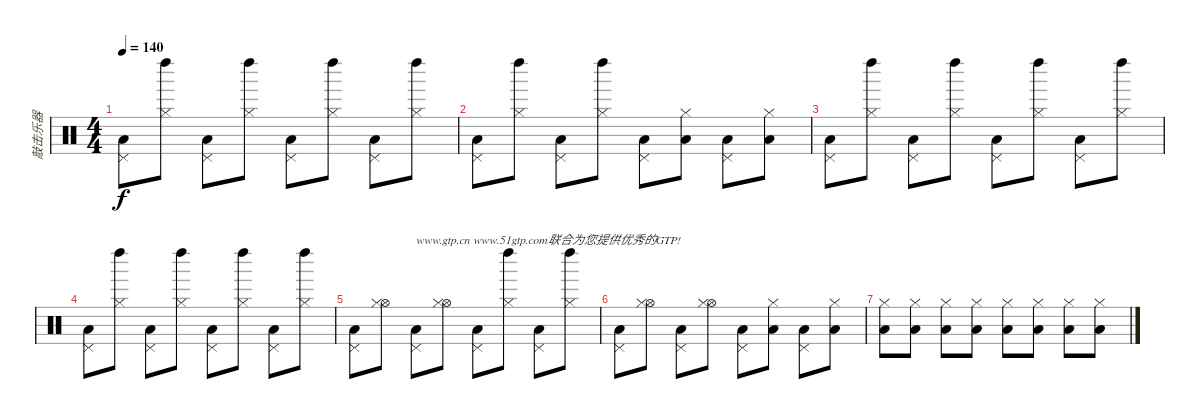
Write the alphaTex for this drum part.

\track ("敲击乐器" "敲击乐器") {instrument percussion}
\staff {score}
\articulation defaults
\ts (4 4)
\tempo 140
\clef neutral
\ks c
("Low Floor Tom (hit)" "Pedal Hi-Hat (hit)").8{dy f} ("Left Maraca (hit)" "Hi-Hat (closed)").8 ("Low Floor Tom (hit)" "Pedal Hi-Hat (hit)").8 ("Left Maraca (hit)" "Hi-Hat (closed)").8 ("Low Floor Tom (hit)" "Pedal Hi-Hat (hit)").8 ("Left Maraca (hit)" "Hi-Hat (closed)").8 ("Low Floor Tom (hit)" "Pedal Hi-Hat (hit)").8 ("Left Maraca (hit)" "Hi-Hat (closed)").8 |
("Low Floor Tom (hit)" "Pedal Hi-Hat (hit)").8 ("Left Maraca (hit)" "Hi-Hat (closed)").8 ("Low Floor Tom (hit)" "Pedal Hi-Hat (hit)").8 ("Left Maraca (hit)" "Hi-Hat (closed)").8 ("Low Floor Tom (hit)" "Pedal Hi-Hat (hit)").8 ("Low Floor Tom (hit)" "Hi-Hat (closed)").8 ("Low Floor Tom (hit)" "Pedal Hi-Hat (hit)").8 ("Low Floor Tom (hit)" "Hi-Hat (closed)").8 |
("Low Floor Tom (hit)" "Pedal Hi-Hat (hit)").8 ("Left Maraca (hit)" "Hi-Hat (closed)").8 ("Low Floor Tom (hit)" "Pedal Hi-Hat (hit)").8 ("Left Maraca (hit)" "Hi-Hat (closed)").8 ("Low Floor Tom (hit)" "Pedal Hi-Hat (hit)").8 ("Left Maraca (hit)" "Hi-Hat (closed)").8 ("Low Floor Tom (hit)" "Pedal Hi-Hat (hit)").8 ("Left Maraca (hit)" "Hi-Hat (closed)").8 |
("Low Floor Tom (hit)" "Pedal Hi-Hat (hit)").8 ("Left Maraca (hit)" "Hi-Hat (closed)").8 ("Low Floor Tom (hit)" "Pedal Hi-Hat (hit)").8 ("Left Maraca (hit)" "Hi-Hat (closed)").8 ("Low Floor Tom (hit)" "Pedal Hi-Hat (hit)").8 ("Left Maraca (hit)" "Hi-Hat (closed)").8 ("Low Floor Tom (hit)" "Pedal Hi-Hat (hit)").8 ("Left Maraca (hit)" "Hi-Hat (closed)").8 |
("Low Floor Tom (hit)" "Pedal Hi-Hat (hit)").8 ("Hi-Hat (open)" "Hi-Hat (closed)").8 ("Low Floor Tom (hit)" "Pedal Hi-Hat (hit)").8{txt "www.gtp.cn www.51gtp.com联合为您提供优秀的GTP!"} ("Hi-Hat (open)" "Hi-Hat (closed)").8 ("Low Floor Tom (hit)" "Pedal Hi-Hat (hit)").8 ("Left Maraca (hit)" "Hi-Hat (closed)").8 ("Low Floor Tom (hit)" "Pedal Hi-Hat (hit)").8 ("Left Maraca (hit)" "Hi-Hat (closed)").8 |
("Low Floor Tom (hit)" "Pedal Hi-Hat (hit)").8 ("Hi-Hat (open)" "Hi-Hat (closed)").8 ("Low Floor Tom (hit)" "Pedal Hi-Hat (hit)").8 ("Hi-Hat (open)" "Hi-Hat (closed)").8 ("Low Floor Tom (hit)" "Pedal Hi-Hat (hit)").8 ("Low Floor Tom (hit)" "Hi-Hat (closed)").8 ("Low Floor Tom (hit)" "Pedal Hi-Hat (hit)").8 ("Low Floor Tom (hit)" "Hi-Hat (closed)").8 |
("Low Floor Tom (hit)" "Hi-Hat (closed)").8 ("Low Floor Tom (hit)" "Hi-Hat (closed)").8 ("Low Floor Tom (hit)" "Hi-Hat (closed)").8 ("Low Floor Tom (hit)" "Hi-Hat (closed)").8 ("Low Floor Tom (hit)" "Hi-Hat (closed)").8 ("Low Floor Tom (hit)" "Hi-Hat (closed)").8 ("Low Floor Tom (hit)" "Hi-Hat (closed)").8 ("Low Floor Tom (hit)" "Hi-Hat (closed)").8
